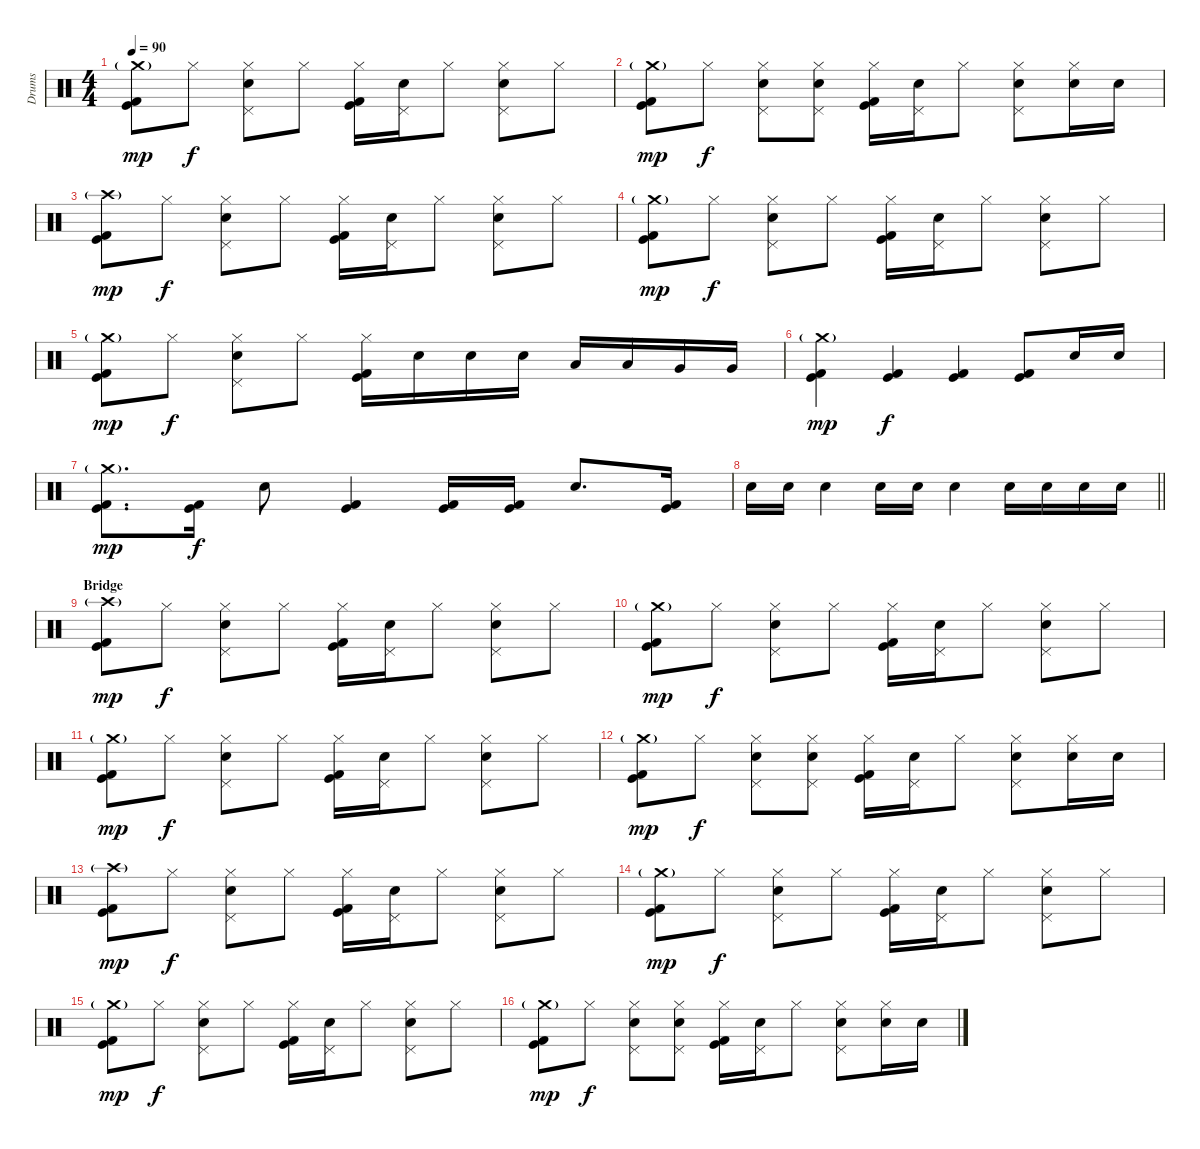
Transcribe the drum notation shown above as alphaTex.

\track ("Drums" "Drums") {instrument percussion}
\staff {score}
\articulation defaults
\ts (4 4)
\tempo 90
\clef neutral
\ks c
("Crash medium (hit)"{g} "Kick (hit)" "Kick (hit) 2").8{dy mp} "Hi-Hat (closed)".8{dy f} ("Hi-Hat (closed)" "Pedal Hi-Hat (hit)" "Electric Snare (hit)").8 "Hi-Hat (closed)".8 ("Hi-Hat (closed)" "Kick (hit)" "Kick (hit) 2").16 ("Pedal Hi-Hat (hit)" "Electric Snare (hit)").16 "Hi-Hat (closed)".8 ("Hi-Hat (closed)" "Pedal Hi-Hat (hit)" "Electric Snare (hit)").8 "Hi-Hat (closed)".8 |
("Crash medium (hit)"{g} "Kick (hit)" "Kick (hit) 2").8{dy mp} "Hi-Hat (closed)".8{dy f} ("Hi-Hat (closed)" "Pedal Hi-Hat (hit)" "Electric Snare (hit)").8 ("Hi-Hat (closed)" "Pedal Hi-Hat (hit)" "Electric Snare (hit)").8 ("Hi-Hat (closed)" "Kick (hit)" "Kick (hit) 2").16 ("Pedal Hi-Hat (hit)" "Electric Snare (hit)").16 "Hi-Hat (closed)".8 ("Hi-Hat (closed)" "Pedal Hi-Hat (hit)" "Electric Snare (hit)").8 ("Hi-Hat (closed)" "Electric Snare (hit)").16 "Electric Snare (hit)".16 |
("Crash high (hit)"{g} "Kick (hit)" "Kick (hit) 2").8{dy mp} "Hi-Hat (closed)".8{dy f} ("Hi-Hat (closed)" "Pedal Hi-Hat (hit)" "Electric Snare (hit)").8 "Hi-Hat (closed)".8 ("Hi-Hat (closed)" "Kick (hit)" "Kick (hit) 2").16 ("Pedal Hi-Hat (hit)" "Electric Snare (hit)").16 "Hi-Hat (closed)".8 ("Hi-Hat (closed)" "Pedal Hi-Hat (hit)" "Electric Snare (hit)").8 "Hi-Hat (closed)".8 |
("Crash medium (hit)"{g} "Kick (hit)" "Kick (hit) 2").8{dy mp} "Hi-Hat (closed)".8{dy f} ("Hi-Hat (closed)" "Pedal Hi-Hat (hit)" "Electric Snare (hit)").8 "Hi-Hat (closed)".8 ("Hi-Hat (closed)" "Kick (hit)" "Kick (hit) 2").16 ("Pedal Hi-Hat (hit)" "Electric Snare (hit)").16 "Hi-Hat (closed)".8 ("Hi-Hat (closed)" "Pedal Hi-Hat (hit)" "Electric Snare (hit)").8 "Hi-Hat (closed)".8 |
("Crash medium (hit)"{g} "Kick (hit)" "Kick (hit) 2").8{dy mp} "Hi-Hat (closed)".8{dy f} ("Hi-Hat (closed)" "Pedal Hi-Hat (hit)" "Electric Snare (hit)").8 "Hi-Hat (closed)".8 ("Hi-Hat (closed)" "Kick (hit)" "Kick (hit) 2").16 "Electric Snare (hit)".16 "Electric Snare (hit)".16 "Electric Snare (hit)".16 "Low Tom (hit)".16 "Low Tom (hit)".16 "Very Low Tom (hit)".16 "Very Low Tom (hit)".16 |
("Crash medium (hit)"{g} "Kick (hit)" "Kick (hit) 2").4{dy mp} ("Kick (hit)" "Kick (hit) 2").4{dy f} ("Kick (hit)" "Kick (hit) 2").4 ("Kick (hit)" "Kick (hit) 2").8 "Electric Snare (hit)".16 "Electric Snare (hit)".16 |
("Crash medium (hit)"{g} "Kick (hit)" "Kick (hit) 2").8{d dy mp} ("Kick (hit)" "Kick (hit) 2").16{dy f} "Electric Snare (hit)".8 ("Kick (hit)" "Kick (hit) 2").4 ("Kick (hit)" "Kick (hit) 2").16 ("Kick (hit)" "Kick (hit) 2").16 "Electric Snare (hit)".8{d} ("Kick (hit)" "Kick (hit) 2").16 |
\barLineRight lightlight "Electric Snare (hit)".16 "Electric Snare (hit)".16 "Electric Snare (hit)".4 "Electric Snare (hit)".16 "Electric Snare (hit)".16 "Electric Snare (hit)".4 "Electric Snare (hit)".16 "Electric Snare (hit)".16 "Electric Snare (hit)".16 "Electric Snare (hit)".16
|
\section ("" "Bridge")
("Crash high (hit)"{g} "Kick (hit)" "Kick (hit) 2").8{dy mp} "Hi-Hat (closed)".8{dy f} ("Hi-Hat (closed)" "Pedal Hi-Hat (hit)" "Electric Snare (hit)").8 "Hi-Hat (closed)".8 ("Hi-Hat (closed)" "Kick (hit)" "Kick (hit) 2").16 ("Pedal Hi-Hat (hit)" "Electric Snare (hit)").16 "Hi-Hat (closed)".8 ("Hi-Hat (closed)" "Pedal Hi-Hat (hit)" "Electric Snare (hit)").8 "Hi-Hat (closed)".8 |
("Crash medium (hit)"{g} "Kick (hit)" "Kick (hit) 2").8{dy mp} "Hi-Hat (closed)".8{dy f} ("Hi-Hat (closed)" "Pedal Hi-Hat (hit)" "Electric Snare (hit)").8 "Hi-Hat (closed)".8 ("Hi-Hat (closed)" "Kick (hit)" "Kick (hit) 2").16 ("Pedal Hi-Hat (hit)" "Electric Snare (hit)").16 "Hi-Hat (closed)".8 ("Hi-Hat (closed)" "Pedal Hi-Hat (hit)" "Electric Snare (hit)").8 "Hi-Hat (closed)".8 |
("Crash medium (hit)"{g} "Kick (hit)" "Kick (hit) 2").8{dy mp} "Hi-Hat (closed)".8{dy f} ("Hi-Hat (closed)" "Pedal Hi-Hat (hit)" "Electric Snare (hit)").8 "Hi-Hat (closed)".8 ("Hi-Hat (closed)" "Kick (hit)" "Kick (hit) 2").16 ("Pedal Hi-Hat (hit)" "Electric Snare (hit)").16 "Hi-Hat (closed)".8 ("Hi-Hat (closed)" "Pedal Hi-Hat (hit)" "Electric Snare (hit)").8 "Hi-Hat (closed)".8 |
("Crash medium (hit)"{g} "Kick (hit)" "Kick (hit) 2").8{dy mp} "Hi-Hat (closed)".8{dy f} ("Hi-Hat (closed)" "Pedal Hi-Hat (hit)" "Electric Snare (hit)").8 ("Hi-Hat (closed)" "Pedal Hi-Hat (hit)" "Electric Snare (hit)").8 ("Hi-Hat (closed)" "Kick (hit)" "Kick (hit) 2").16 ("Pedal Hi-Hat (hit)" "Electric Snare (hit)").16 "Hi-Hat (closed)".8 ("Hi-Hat (closed)" "Pedal Hi-Hat (hit)" "Electric Snare (hit)").8 ("Hi-Hat (closed)" "Electric Snare (hit)").16 "Electric Snare (hit)".16 |
("Crash high (hit)"{g} "Kick (hit)" "Kick (hit) 2").8{dy mp} "Hi-Hat (closed)".8{dy f} ("Hi-Hat (closed)" "Pedal Hi-Hat (hit)" "Electric Snare (hit)").8 "Hi-Hat (closed)".8 ("Hi-Hat (closed)" "Kick (hit)" "Kick (hit) 2").16 ("Pedal Hi-Hat (hit)" "Electric Snare (hit)").16 "Hi-Hat (closed)".8 ("Hi-Hat (closed)" "Pedal Hi-Hat (hit)" "Electric Snare (hit)").8 "Hi-Hat (closed)".8 |
("Crash medium (hit)"{g} "Kick (hit)" "Kick (hit) 2").8{dy mp} "Hi-Hat (closed)".8{dy f} ("Hi-Hat (closed)" "Pedal Hi-Hat (hit)" "Electric Snare (hit)").8 "Hi-Hat (closed)".8 ("Hi-Hat (closed)" "Kick (hit)" "Kick (hit) 2").16 ("Pedal Hi-Hat (hit)" "Electric Snare (hit)").16 "Hi-Hat (closed)".8 ("Hi-Hat (closed)" "Pedal Hi-Hat (hit)" "Electric Snare (hit)").8 "Hi-Hat (closed)".8 |
("Crash medium (hit)"{g} "Kick (hit)" "Kick (hit) 2").8{dy mp} "Hi-Hat (closed)".8{dy f} ("Hi-Hat (closed)" "Pedal Hi-Hat (hit)" "Electric Snare (hit)").8 "Hi-Hat (closed)".8 ("Hi-Hat (closed)" "Kick (hit)" "Kick (hit) 2").16 ("Pedal Hi-Hat (hit)" "Electric Snare (hit)").16 "Hi-Hat (closed)".8 ("Hi-Hat (closed)" "Pedal Hi-Hat (hit)" "Electric Snare (hit)").8 "Hi-Hat (closed)".8 |
("Crash medium (hit)"{g} "Kick (hit)" "Kick (hit) 2").8{dy mp} "Hi-Hat (closed)".8{dy f} ("Hi-Hat (closed)" "Pedal Hi-Hat (hit)" "Electric Snare (hit)").8 ("Hi-Hat (closed)" "Pedal Hi-Hat (hit)" "Electric Snare (hit)").8 ("Hi-Hat (closed)" "Kick (hit)" "Kick (hit) 2").16 ("Pedal Hi-Hat (hit)" "Electric Snare (hit)").16 "Hi-Hat (closed)".8 ("Hi-Hat (closed)" "Pedal Hi-Hat (hit)" "Electric Snare (hit)").8 ("Hi-Hat (closed)" "Electric Snare (hit)").16 "Electric Snare (hit)".16
